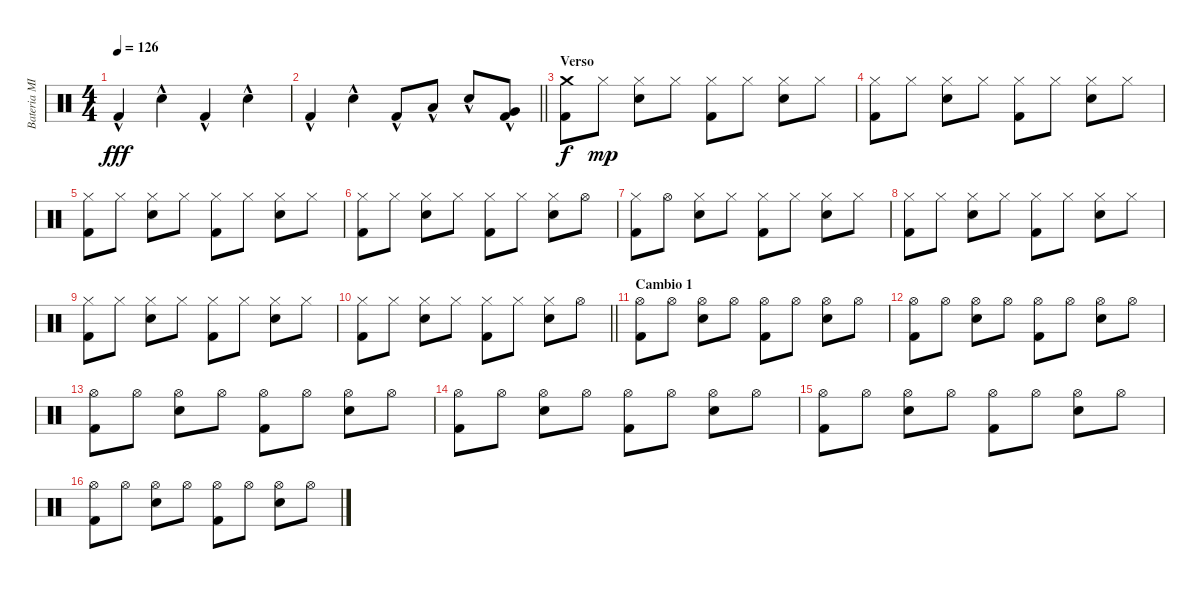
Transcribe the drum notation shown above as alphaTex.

\track ("Bateria MIDI" "Bateria MI") {instrument percussion}
\staff {score}
\articulation defaults
\ts (4 4)
\tempo 126
\clef neutral
\ks c "Kick (hit) 2"{hac}.4{dy fff} "Snare (hit) 2"{hac}.4 "Kick (hit) 2"{hac}.4 "Snare (hit) 2"{hac}.4
|
\barLineRight lightlight "Kick (hit) 2"{hac}.4 "Snare (hit) 2"{hac}.4 "Kick (hit) 2"{hac}.8 "Low Tom (hit)"{hac}.8 "Snare (hit) 2"{hac}.8
("Very Low Tom (hit)"{hac} "Kick (hit) 2"{hac}).8 |
\section ("" "Verso")
("Crash medium (hit)" "Kick (hit) 2").8{dy f} "Hi-Hat (closed)".8{dy mp} ("Hi-Hat (closed)" "Snare (hit) 2").8 "Hi-Hat (closed)".8 ("Hi-Hat (closed)" "Kick (hit) 2").8 "Hi-Hat (closed)".8 ("Hi-Hat (closed)" "Snare (hit) 2").8 "Hi-Hat (closed)".8 |
("Hi-Hat (closed)" "Kick (hit) 2").8 "Hi-Hat (closed)".8 ("Hi-Hat (closed)" "Snare (hit) 2").8 "Hi-Hat (closed)".8 ("Hi-Hat (closed)" "Kick (hit) 2").8 "Hi-Hat (closed)".8 ("Hi-Hat (closed)" "Snare (hit) 2").8 "Hi-Hat (closed)".8 |
("Hi-Hat (closed)" "Kick (hit) 2").8 "Hi-Hat (closed)".8 ("Hi-Hat (closed)" "Snare (hit) 2").8 "Hi-Hat (closed)".8 ("Hi-Hat (closed)" "Kick (hit) 2").8 "Hi-Hat (closed)".8 ("Hi-Hat (closed)" "Snare (hit) 2").8 "Hi-Hat (closed)".8 |
("Hi-Hat (closed)" "Kick (hit) 2").8 "Hi-Hat (closed)".8 ("Hi-Hat (closed)" "Snare (hit) 2").8 "Hi-Hat (closed)".8 ("Hi-Hat (closed)" "Kick (hit) 2").8 "Hi-Hat (closed)".8 ("Hi-Hat (closed)" "Snare (hit) 2").8 "Hi-Hat (open)".8 |
("Hi-Hat (closed)" "Kick (hit) 2").8 "Hi-Hat (open)".8 ("Hi-Hat (closed)" "Snare (hit) 2").8 "Hi-Hat (closed)".8 ("Hi-Hat (closed)" "Kick (hit) 2").8 "Hi-Hat (closed)".8 ("Hi-Hat (closed)" "Snare (hit) 2").8 "Hi-Hat (closed)".8 |
("Hi-Hat (closed)" "Kick (hit) 2").8 "Hi-Hat (closed)".8 ("Hi-Hat (closed)" "Snare (hit) 2").8 "Hi-Hat (closed)".8 ("Hi-Hat (closed)" "Kick (hit) 2").8 "Hi-Hat (closed)".8 ("Hi-Hat (closed)" "Snare (hit) 2").8 "Hi-Hat (closed)".8 |
("Hi-Hat (closed)" "Kick (hit) 2").8 "Hi-Hat (closed)".8 ("Hi-Hat (closed)" "Snare (hit) 2").8 "Hi-Hat (closed)".8 ("Hi-Hat (closed)" "Kick (hit) 2").8 "Hi-Hat (closed)".8 ("Hi-Hat (closed)" "Snare (hit) 2").8 "Hi-Hat (closed)".8 |
\barLineRight lightlight
("Hi-Hat (closed)" "Kick (hit) 2").8 "Hi-Hat (closed)".8 ("Hi-Hat (closed)" "Snare (hit) 2").8 "Hi-Hat (closed)".8 ("Hi-Hat (closed)" "Kick (hit) 2").8 "Hi-Hat (closed)".8 ("Hi-Hat (closed)" "Snare (hit) 2").8 "Hi-Hat (open)".8 |
\section ("" "Cambio 1")
("Hi-Hat (open)" "Kick (hit) 2").8 "Hi-Hat (open)".8 ("Hi-Hat (open)" "Snare (hit) 2").8 "Hi-Hat (open)".8 ("Hi-Hat (open)" "Kick (hit) 2").8 "Hi-Hat (open)".8 ("Hi-Hat (open)" "Snare (hit) 2").8 "Hi-Hat (open)".8 |
("Hi-Hat (open)" "Kick (hit) 2").8 "Hi-Hat (open)".8 ("Hi-Hat (open)" "Snare (hit) 2").8 "Hi-Hat (open)".8 ("Hi-Hat (open)" "Kick (hit) 2").8 "Hi-Hat (open)".8 ("Hi-Hat (open)" "Snare (hit) 2").8 "Hi-Hat (open)".8 |
("Hi-Hat (open)" "Kick (hit) 2").8 "Hi-Hat (open)".8 ("Hi-Hat (open)" "Snare (hit) 2").8 "Hi-Hat (open)".8 ("Hi-Hat (open)" "Kick (hit) 2").8 "Hi-Hat (open)".8 ("Hi-Hat (open)" "Snare (hit) 2").8 "Hi-Hat (open)".8 |
("Hi-Hat (open)" "Kick (hit) 2").8 "Hi-Hat (open)".8 ("Hi-Hat (open)" "Snare (hit) 2").8 "Hi-Hat (open)".8 ("Hi-Hat (open)" "Kick (hit) 2").8 "Hi-Hat (open)".8 ("Hi-Hat (open)" "Snare (hit) 2").8 "Hi-Hat (open)".8 |
("Hi-Hat (open)" "Kick (hit) 2").8 "Hi-Hat (open)".8 ("Hi-Hat (open)" "Snare (hit) 2").8 "Hi-Hat (open)".8 ("Hi-Hat (open)" "Kick (hit) 2").8 "Hi-Hat (open)".8 ("Hi-Hat (open)" "Snare (hit) 2").8 "Hi-Hat (open)".8 |
("Hi-Hat (open)" "Kick (hit) 2").8 "Hi-Hat (open)".8 ("Hi-Hat (open)" "Snare (hit) 2").8 "Hi-Hat (open)".8 ("Hi-Hat (open)" "Kick (hit) 2").8 "Hi-Hat (open)".8 ("Hi-Hat (open)" "Snare (hit) 2").8 "Hi-Hat (open)".8
